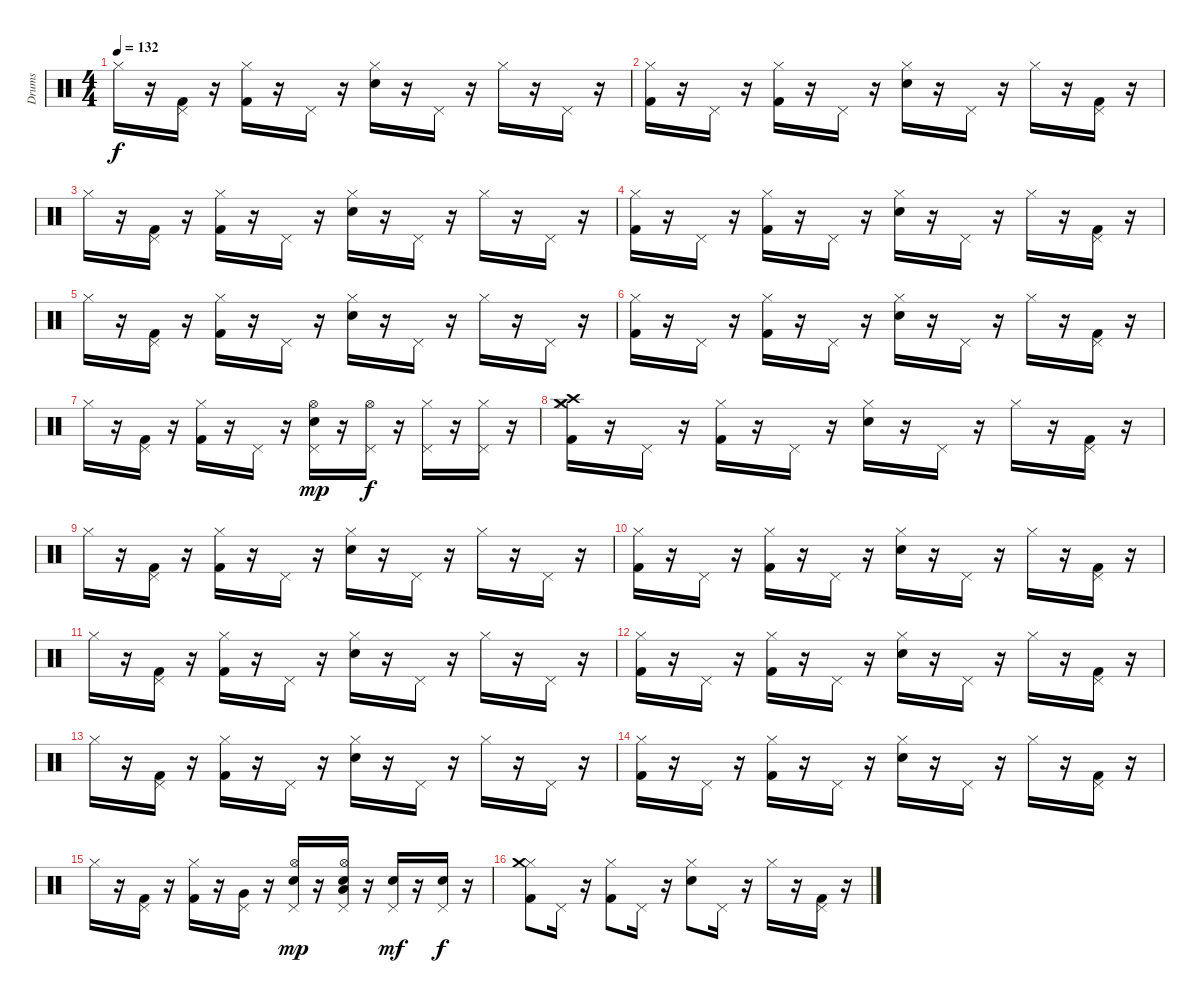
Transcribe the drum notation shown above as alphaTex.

\track ("Drums" "Drums") {instrument percussion}
\staff {score}
\articulation defaults
\ts (4 4)
\tempo 132
\clef neutral
\ks c "Hi-Hat (closed)".16{dy f}
r.16 ("Pedal Hi-Hat (hit)" "Kick (hit) 2").16 r.16 ("Hi-Hat (closed)" "Kick (hit) 2").16 r.16 "Pedal Hi-Hat (hit)".16 r.16 ("Hi-Hat (closed)" "Electric Snare (hit)").16 r.16 "Pedal Hi-Hat (hit)".16 r.16 "Hi-Hat (closed)".16 r.16 "Pedal Hi-Hat (hit)".16 r.16 |
("Hi-Hat (closed)" "Kick (hit) 2").16 r.16 "Pedal Hi-Hat (hit)".16 r.16 ("Hi-Hat (closed)" "Kick (hit) 2").16 r.16 "Pedal Hi-Hat (hit)".16 r.16 ("Hi-Hat (closed)" "Electric Snare (hit)").16 r.16 "Pedal Hi-Hat (hit)".16 r.16 "Hi-Hat (closed)".16 r.16 ("Pedal Hi-Hat (hit)" "Kick (hit) 2").16 r.16 |
"Hi-Hat (closed)".16 r.16 ("Pedal Hi-Hat (hit)" "Kick (hit) 2").16 r.16 ("Hi-Hat (closed)" "Kick (hit) 2").16 r.16 "Pedal Hi-Hat (hit)".16 r.16 ("Hi-Hat (closed)" "Electric Snare (hit)").16 r.16 "Pedal Hi-Hat (hit)".16 r.16 "Hi-Hat (closed)".16 r.16 "Pedal Hi-Hat (hit)".16 r.16 |
("Hi-Hat (closed)" "Kick (hit) 2").16 r.16 "Pedal Hi-Hat (hit)".16 r.16 ("Hi-Hat (closed)" "Kick (hit) 2").16 r.16 "Pedal Hi-Hat (hit)".16 r.16 ("Hi-Hat (closed)" "Electric Snare (hit)").16 r.16 "Pedal Hi-Hat (hit)".16 r.16 "Hi-Hat (closed)".16 r.16 ("Pedal Hi-Hat (hit)" "Kick (hit) 2").16 r.16 |
"Hi-Hat (closed)".16 r.16 ("Pedal Hi-Hat (hit)" "Kick (hit) 2").16 r.16 ("Hi-Hat (closed)" "Kick (hit) 2").16 r.16 "Pedal Hi-Hat (hit)".16 r.16 ("Hi-Hat (closed)" "Electric Snare (hit)").16 r.16 "Pedal Hi-Hat (hit)".16 r.16 "Hi-Hat (closed)".16 r.16 "Pedal Hi-Hat (hit)".16 r.16 |
("Hi-Hat (closed)" "Kick (hit) 2").16 r.16 "Pedal Hi-Hat (hit)".16 r.16 ("Hi-Hat (closed)" "Kick (hit) 2").16 r.16 "Pedal Hi-Hat (hit)".16 r.16 ("Hi-Hat (closed)" "Electric Snare (hit)").16 r.16 "Pedal Hi-Hat (hit)".16 r.16 "Hi-Hat (closed)".16 r.16 ("Pedal Hi-Hat (hit)" "Kick (hit) 2").16 r.16 |
"Hi-Hat (closed)".16 r.16 ("Pedal Hi-Hat (hit)" "Kick (hit) 2").16 r.16 ("Hi-Hat (closed)" "Kick (hit) 2").16 r.16 "Pedal Hi-Hat (hit)".16 r.16 ("Pedal Hi-Hat (hit)" "Electric Snare (hit)" "Hi-Hat (open)").16{dy mp} r.16 ("Hi-Hat (open)" "Pedal Hi-Hat (hit)").16{dy f} r.16 ("Pedal Hi-Hat (hit)" "Hi-Hat (closed)").16 r.16 ("Hi-Hat (closed)" "Pedal Hi-Hat (hit)").16 r.16 |
("Hi-Hat (closed)" "Kick (hit) 2" "Crash medium (hit)" "Crash high (hit)").16 r.16 "Pedal Hi-Hat (hit)".16 r.16 ("Hi-Hat (closed)" "Kick (hit) 2").16 r.16 "Pedal Hi-Hat (hit)".16 r.16 ("Hi-Hat (closed)" "Electric Snare (hit)").16 r.16 "Pedal Hi-Hat (hit)".16 r.16 "Hi-Hat (closed)".16 r.16 ("Pedal Hi-Hat (hit)" "Kick (hit) 2").16 r.16 |
"Hi-Hat (closed)".16 r.16 ("Pedal Hi-Hat (hit)" "Kick (hit) 2").16 r.16 ("Hi-Hat (closed)" "Kick (hit) 2").16 r.16 "Pedal Hi-Hat (hit)".16 r.16 ("Hi-Hat (closed)" "Electric Snare (hit)").16 r.16 "Pedal Hi-Hat (hit)".16 r.16 "Hi-Hat (closed)".16 r.16 "Pedal Hi-Hat (hit)".16 r.16 |
("Hi-Hat (closed)" "Kick (hit) 2").16 r.16 "Pedal Hi-Hat (hit)".16 r.16 ("Hi-Hat (closed)" "Kick (hit) 2").16 r.16 "Pedal Hi-Hat (hit)".16 r.16 ("Hi-Hat (closed)" "Electric Snare (hit)").16 r.16 "Pedal Hi-Hat (hit)".16 r.16 "Hi-Hat (closed)".16 r.16 ("Pedal Hi-Hat (hit)" "Kick (hit) 2").16 r.16 |
"Hi-Hat (closed)".16 r.16 ("Pedal Hi-Hat (hit)" "Kick (hit) 2").16 r.16 ("Hi-Hat (closed)" "Kick (hit) 2").16 r.16 "Pedal Hi-Hat (hit)".16 r.16 ("Hi-Hat (closed)" "Electric Snare (hit)").16 r.16 "Pedal Hi-Hat (hit)".16 r.16 "Hi-Hat (closed)".16 r.16 "Pedal Hi-Hat (hit)".16 r.16 |
("Hi-Hat (closed)" "Kick (hit) 2").16 r.16 "Pedal Hi-Hat (hit)".16 r.16 ("Hi-Hat (closed)" "Kick (hit) 2").16 r.16 "Pedal Hi-Hat (hit)".16 r.16 ("Hi-Hat (closed)" "Electric Snare (hit)").16 r.16 "Pedal Hi-Hat (hit)".16 r.16 "Hi-Hat (closed)".16 r.16 ("Pedal Hi-Hat (hit)" "Kick (hit) 2").16 r.16 |
"Hi-Hat (closed)".16 r.16 ("Pedal Hi-Hat (hit)" "Kick (hit) 2").16 r.16 ("Hi-Hat (closed)" "Kick (hit) 2").16 r.16 "Pedal Hi-Hat (hit)".16 r.16 ("Hi-Hat (closed)" "Electric Snare (hit)").16 r.16 "Pedal Hi-Hat (hit)".16 r.16 "Hi-Hat (closed)".16 r.16 "Pedal Hi-Hat (hit)".16 r.16 |
("Hi-Hat (closed)" "Kick (hit) 2").16 r.16 "Pedal Hi-Hat (hit)".16 r.16 ("Hi-Hat (closed)" "Kick (hit) 2").16 r.16 "Pedal Hi-Hat (hit)".16 r.16 ("Hi-Hat (closed)" "Electric Snare (hit)").16 r.16 "Pedal Hi-Hat (hit)".16 r.16 "Hi-Hat (closed)".16 r.16 ("Pedal Hi-Hat (hit)" "Kick (hit) 2").16 r.16 |
"Hi-Hat (closed)".16 r.16 ("Pedal Hi-Hat (hit)" "Kick (hit) 2").16 r.16 ("Hi-Hat (closed)" "Kick (hit) 2").16 r.16 ("Pedal Hi-Hat (hit)" "Very Low Tom (hit)").16 r.16 ("Pedal Hi-Hat (hit)" "Snare (hit) 2" "Hi-Hat (open)").16{dy mp} r.16 ("Hi-Hat (open)" "Pedal Hi-Hat (hit)" "Low Tom (hit)" "Electric Snare (hit)").16 r.16 ("Pedal Hi-Hat (hit)" "Electric Snare (hit)").16{dy mf} r.16 ("Pedal Hi-Hat (hit)" "Electric Snare (hit)").16{dy f} r.16 |
("Hi-Hat (closed)" "Kick (hit) 2" "Crash medium (hit)").8 "Pedal Hi-Hat (hit)".16 r.16 ("Hi-Hat (closed)" "Kick (hit) 2").8 "Pedal Hi-Hat (hit)".16 r.16 ("Hi-Hat (closed)" "Electric Snare (hit)").8 "Pedal Hi-Hat (hit)".16 r.16 "Hi-Hat (closed)".16 r.16 ("Pedal Hi-Hat (hit)" "Kick (hit) 2").16 r.16
